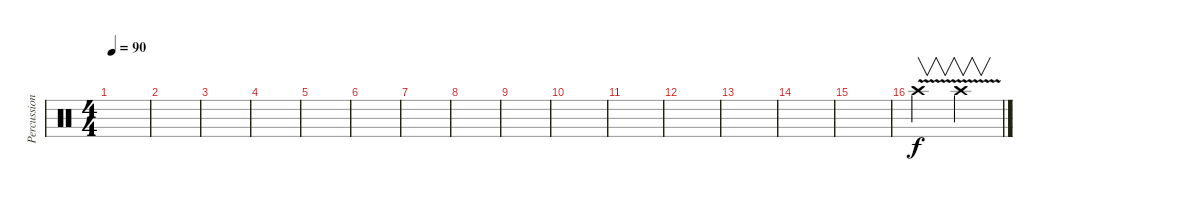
\track ("Percussion" "Percussion") {instrument percussion}
\staff {score}
\articulation defaults
\ts (4 4)
\tempo 90
\clef neutral
\ks c
|
|
|
|
|
|
|
|
|
|
|
|
|
|
|
"Crash high (hit)"{v}.2{v} "Crash high (hit)"{v}.2{v}
